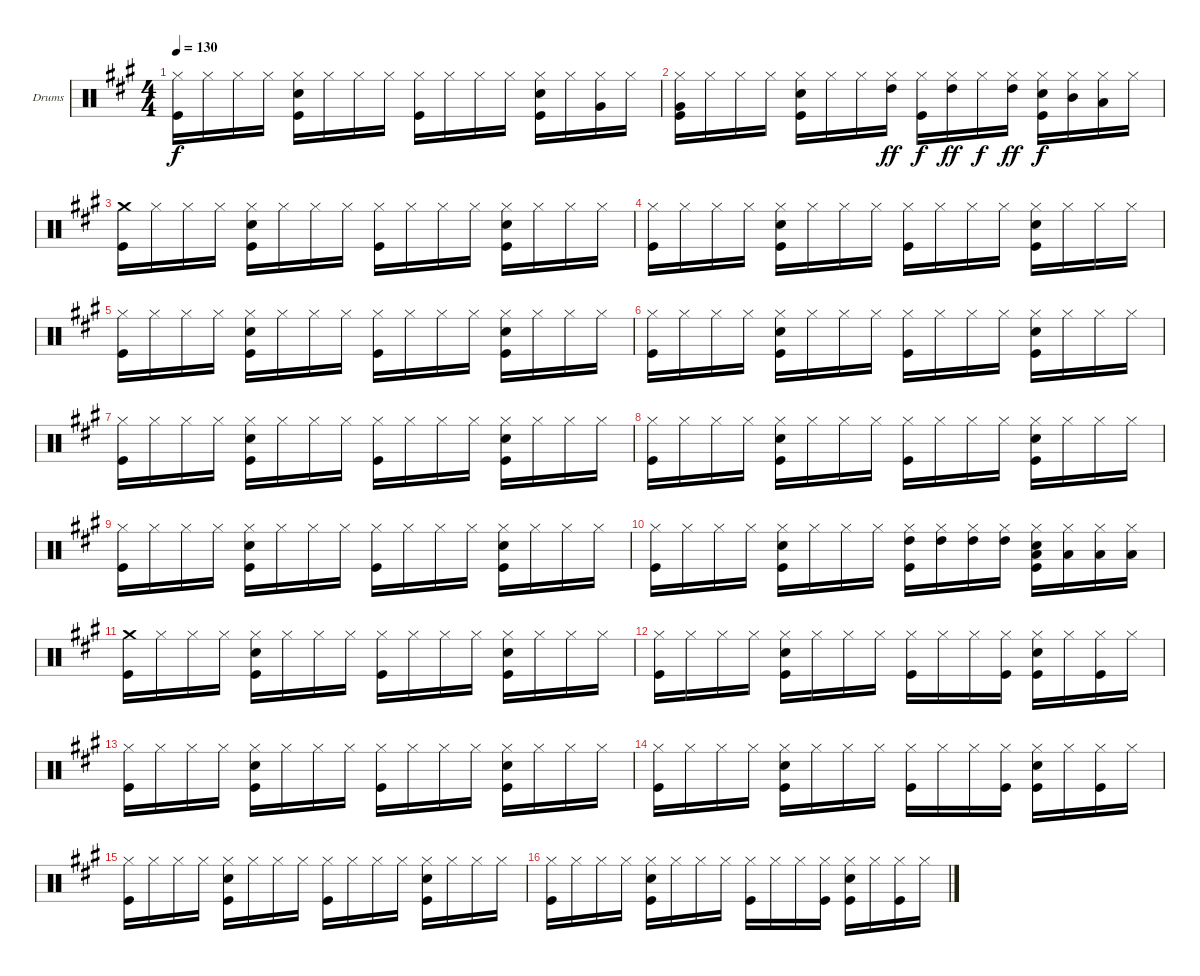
\bracketExtendMode groupsimilarinstruments
\firstSystemTrackNameOrientation horizontal
\otherSystemsTrackNameOrientation horizontal
\track ("DRUMS" "Drums") {instrument percussion}
\staff {score}
\articulation defaults
\ts (4 4)
\tempo 130
\clef neutral
\ks f#minor
("Hi-Hat (closed)" "Kick (hit)").16{dy f} "Hi-Hat (closed)".16 "Hi-Hat (closed)".16 "Hi-Hat (closed)".16 ("Hi-Hat (closed)" "Snare (hit) 2" "Kick (hit)").16 "Hi-Hat (closed)".16 "Hi-Hat (closed)".16 "Hi-Hat (closed)".16 ("Hi-Hat (closed)" "Kick (hit)").16 "Hi-Hat (closed)".16 "Hi-Hat (closed)".16 "Hi-Hat (closed)".16 ("Hi-Hat (closed)" "Snare (hit) 2" "Kick (hit)").16 "Hi-Hat (closed)".16 ("Hi-Hat (closed)" "Very Low Tom (hit)").16 "Hi-Hat (closed)".16 |
("Hi-Hat (closed)" "Kick (hit)" "Very Low Tom (hit)").16 "Hi-Hat (closed)".16 "Hi-Hat (closed)".16 "Hi-Hat (closed)".16 ("Hi-Hat (closed)" "Snare (hit) 2" "Kick (hit)").16 "Hi-Hat (closed)".16 "Hi-Hat (closed)".16 ("High Tom (hit)" "Hi-Hat (closed)").16{dy ff} ("Hi-Hat (closed)" "Kick (hit)").16{dy f} ("High Tom (hit)" "Hi-Hat (closed)").16{dy ff} "Hi-Hat (closed)".16{dy f} ("High Tom (hit)" "Hi-Hat (closed)").16{dy ff} ("Hi-Hat (closed)" "Snare (hit) 2" "Kick (hit)").16{dy f} ("Hi-Hat (closed)" "Mid Tom (hit)").16 ("Low Tom (hit)" "Hi-Hat (closed)").16 "Hi-Hat (closed)".16 |
("Kick (hit)" "Crash medium (hit)").16 "Hi-Hat (closed)".16 "Hi-Hat (closed)".16 "Hi-Hat (closed)".16 ("Hi-Hat (closed)" "Snare (hit) 2" "Kick (hit)").16 "Hi-Hat (closed)".16 "Hi-Hat (closed)".16 "Hi-Hat (closed)".16 ("Hi-Hat (closed)" "Kick (hit)").16 "Hi-Hat (closed)".16 "Hi-Hat (closed)".16 "Hi-Hat (closed)".16 ("Hi-Hat (closed)" "Snare (hit) 2" "Kick (hit)").16 "Hi-Hat (closed)".16 "Hi-Hat (closed)".16 "Hi-Hat (closed)".16 |
("Hi-Hat (closed)" "Kick (hit)").16 "Hi-Hat (closed)".16 "Hi-Hat (closed)".16 "Hi-Hat (closed)".16 ("Hi-Hat (closed)" "Snare (hit) 2" "Kick (hit)").16 "Hi-Hat (closed)".16 "Hi-Hat (closed)".16 "Hi-Hat (closed)".16 ("Hi-Hat (closed)" "Kick (hit)").16 "Hi-Hat (closed)".16 "Hi-Hat (closed)".16 "Hi-Hat (closed)".16 ("Hi-Hat (closed)" "Snare (hit) 2" "Kick (hit)").16 "Hi-Hat (closed)".16 "Hi-Hat (closed)".16 "Hi-Hat (closed)".16 |
("Hi-Hat (closed)" "Kick (hit)").16 "Hi-Hat (closed)".16 "Hi-Hat (closed)".16 "Hi-Hat (closed)".16 ("Hi-Hat (closed)" "Snare (hit) 2" "Kick (hit)").16 "Hi-Hat (closed)".16 "Hi-Hat (closed)".16 "Hi-Hat (closed)".16 ("Hi-Hat (closed)" "Kick (hit)").16 "Hi-Hat (closed)".16 "Hi-Hat (closed)".16 "Hi-Hat (closed)".16 ("Hi-Hat (closed)" "Snare (hit) 2" "Kick (hit)").16 "Hi-Hat (closed)".16 "Hi-Hat (closed)".16 "Hi-Hat (closed)".16 |
("Hi-Hat (closed)" "Kick (hit)").16 "Hi-Hat (closed)".16 "Hi-Hat (closed)".16 "Hi-Hat (closed)".16 ("Hi-Hat (closed)" "Snare (hit) 2" "Kick (hit)").16 "Hi-Hat (closed)".16 "Hi-Hat (closed)".16 "Hi-Hat (closed)".16 ("Hi-Hat (closed)" "Kick (hit)").16 "Hi-Hat (closed)".16 "Hi-Hat (closed)".16 "Hi-Hat (closed)".16 ("Hi-Hat (closed)" "Snare (hit) 2" "Kick (hit)").16 "Hi-Hat (closed)".16 "Hi-Hat (closed)".16 "Hi-Hat (closed)".16 |
("Hi-Hat (closed)" "Kick (hit)").16 "Hi-Hat (closed)".16 "Hi-Hat (closed)".16 "Hi-Hat (closed)".16 ("Hi-Hat (closed)" "Snare (hit) 2" "Kick (hit)").16 "Hi-Hat (closed)".16 "Hi-Hat (closed)".16 "Hi-Hat (closed)".16 ("Hi-Hat (closed)" "Kick (hit)").16 "Hi-Hat (closed)".16 "Hi-Hat (closed)".16 "Hi-Hat (closed)".16 ("Hi-Hat (closed)" "Snare (hit) 2" "Kick (hit)").16 "Hi-Hat (closed)".16 "Hi-Hat (closed)".16 "Hi-Hat (closed)".16 |
("Hi-Hat (closed)" "Kick (hit)").16 "Hi-Hat (closed)".16 "Hi-Hat (closed)".16 "Hi-Hat (closed)".16 ("Hi-Hat (closed)" "Snare (hit) 2" "Kick (hit)").16 "Hi-Hat (closed)".16 "Hi-Hat (closed)".16 "Hi-Hat (closed)".16 ("Hi-Hat (closed)" "Kick (hit)").16 "Hi-Hat (closed)".16 "Hi-Hat (closed)".16 "Hi-Hat (closed)".16 ("Hi-Hat (closed)" "Snare (hit) 2" "Kick (hit)").16 "Hi-Hat (closed)".16 "Hi-Hat (closed)".16 "Hi-Hat (closed)".16 |
("Hi-Hat (closed)" "Kick (hit)").16 "Hi-Hat (closed)".16 "Hi-Hat (closed)".16 "Hi-Hat (closed)".16 ("Hi-Hat (closed)" "Snare (hit) 2" "Kick (hit)").16 "Hi-Hat (closed)".16 "Hi-Hat (closed)".16 "Hi-Hat (closed)".16 ("Hi-Hat (closed)" "Kick (hit)").16 "Hi-Hat (closed)".16 "Hi-Hat (closed)".16 "Hi-Hat (closed)".16 ("Hi-Hat (closed)" "Snare (hit) 2" "Kick (hit)").16 "Hi-Hat (closed)".16 "Hi-Hat (closed)".16 "Hi-Hat (closed)".16 |
("Hi-Hat (closed)" "Kick (hit)").16 "Hi-Hat (closed)".16 "Hi-Hat (closed)".16 "Hi-Hat (closed)".16 ("Hi-Hat (closed)" "Snare (hit) 2" "Kick (hit)").16 "Hi-Hat (closed)".16 "Hi-Hat (closed)".16 "Hi-Hat (closed)".16 ("High Tom (hit)" "Hi-Hat (closed)" "Kick (hit)").16 ("High Tom (hit)" "Hi-Hat (closed)").16 ("High Tom (hit)" "Hi-Hat (closed)").16 ("High Tom (hit)" "Hi-Hat (closed)").16 ("Low Tom (hit)" "Hi-Hat (closed)" "Snare (hit) 2" "Kick (hit)").16 ("Low Tom (hit)" "Hi-Hat (closed)").16 ("Low Tom (hit)" "Hi-Hat (closed)").16 ("Low Tom (hit)" "Hi-Hat (closed)").16 |
("Kick (hit)" "Crash medium (hit)").16 "Hi-Hat (closed)".16 "Hi-Hat (closed)".16 "Hi-Hat (closed)".16 ("Hi-Hat (closed)" "Snare (hit) 2" "Kick (hit)").16 "Hi-Hat (closed)".16 "Hi-Hat (closed)".16 "Hi-Hat (closed)".16 ("Hi-Hat (closed)" "Kick (hit)").16 "Hi-Hat (closed)".16 "Hi-Hat (closed)".16 "Hi-Hat (closed)".16 ("Hi-Hat (closed)" "Snare (hit) 2" "Kick (hit)").16 "Hi-Hat (closed)".16 "Hi-Hat (closed)".16 "Hi-Hat (closed)".16 |
("Hi-Hat (closed)" "Kick (hit)").16 "Hi-Hat (closed)".16 "Hi-Hat (closed)".16 "Hi-Hat (closed)".16 ("Hi-Hat (closed)" "Snare (hit) 2" "Kick (hit)").16 "Hi-Hat (closed)".16 "Hi-Hat (closed)".16 "Hi-Hat (closed)".16 ("Hi-Hat (closed)" "Kick (hit)").16 "Hi-Hat (closed)".16 "Hi-Hat (closed)".16 ("Hi-Hat (closed)" "Kick (hit)").16 ("Hi-Hat (closed)" "Snare (hit) 2" "Kick (hit)").16 "Hi-Hat (closed)".16 ("Hi-Hat (closed)" "Kick (hit)").16 "Hi-Hat (closed)".16 |
("Hi-Hat (closed)" "Kick (hit)").16 "Hi-Hat (closed)".16 "Hi-Hat (closed)".16 "Hi-Hat (closed)".16 ("Hi-Hat (closed)" "Snare (hit) 2" "Kick (hit)").16 "Hi-Hat (closed)".16 "Hi-Hat (closed)".16 "Hi-Hat (closed)".16 ("Hi-Hat (closed)" "Kick (hit)").16 "Hi-Hat (closed)".16 "Hi-Hat (closed)".16 "Hi-Hat (closed)".16 ("Hi-Hat (closed)" "Snare (hit) 2" "Kick (hit)").16 "Hi-Hat (closed)".16 "Hi-Hat (closed)".16 "Hi-Hat (closed)".16 |
("Hi-Hat (closed)" "Kick (hit)").16 "Hi-Hat (closed)".16 "Hi-Hat (closed)".16 "Hi-Hat (closed)".16 ("Hi-Hat (closed)" "Snare (hit) 2" "Kick (hit)").16 "Hi-Hat (closed)".16 "Hi-Hat (closed)".16 "Hi-Hat (closed)".16 ("Hi-Hat (closed)" "Kick (hit)").16 "Hi-Hat (closed)".16 "Hi-Hat (closed)".16 ("Hi-Hat (closed)" "Kick (hit)").16 ("Hi-Hat (closed)" "Snare (hit) 2" "Kick (hit)").16 "Hi-Hat (closed)".16 ("Hi-Hat (closed)" "Kick (hit)").16 "Hi-Hat (closed)".16 |
("Hi-Hat (closed)" "Kick (hit)").16 "Hi-Hat (closed)".16 "Hi-Hat (closed)".16 "Hi-Hat (closed)".16 ("Hi-Hat (closed)" "Snare (hit) 2" "Kick (hit)").16 "Hi-Hat (closed)".16 "Hi-Hat (closed)".16 "Hi-Hat (closed)".16 ("Hi-Hat (closed)" "Kick (hit)").16 "Hi-Hat (closed)".16 "Hi-Hat (closed)".16 "Hi-Hat (closed)".16 ("Hi-Hat (closed)" "Snare (hit) 2" "Kick (hit)").16 "Hi-Hat (closed)".16 "Hi-Hat (closed)".16 "Hi-Hat (closed)".16 |
("Hi-Hat (closed)" "Kick (hit)").16 "Hi-Hat (closed)".16 "Hi-Hat (closed)".16 "Hi-Hat (closed)".16 ("Hi-Hat (closed)" "Snare (hit) 2" "Kick (hit)").16 "Hi-Hat (closed)".16 "Hi-Hat (closed)".16 "Hi-Hat (closed)".16 ("Hi-Hat (closed)" "Kick (hit)").16 "Hi-Hat (closed)".16 "Hi-Hat (closed)".16 ("Hi-Hat (closed)" "Kick (hit)").16 ("Hi-Hat (closed)" "Snare (hit) 2" "Kick (hit)").16 "Hi-Hat (closed)".16 ("Hi-Hat (closed)" "Kick (hit)").16 "Hi-Hat (closed)".16
